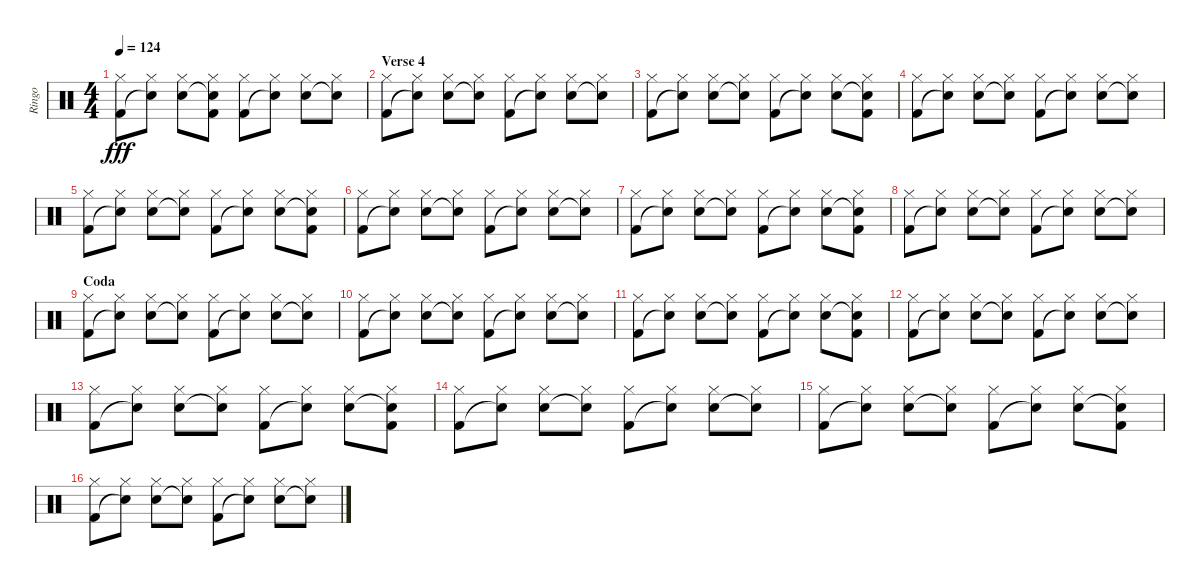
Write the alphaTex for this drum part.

\track ("Ringo" "Ringo") {instrument percussion}
\staff {score}
\articulation defaults
\ts (4 4)
\tempo 124
\clef neutral
\ks c
("Hi-Hat (closed)" "Kick (hit) 2").8{dy fff} ("Hi-Hat (closed)" "Snare (hit)"{t}).8 ("Hi-Hat (closed)" "Snare (hit) 2").8 ("Hi-Hat (closed)" "Snare (hit)"{t} "Kick (hit) 2").8 ("Hi-Hat (closed)" "Kick (hit) 2").8 ("Hi-Hat (closed)" "Snare (hit)"{t}).8 ("Hi-Hat (closed)" "Snare (hit) 2").8 ("Hi-Hat (closed)" "Snare (hit)"{t}).8 |
\section ("" "Verse 4")
("Hi-Hat (closed)" "Kick (hit) 2").8 ("Hi-Hat (closed)" "Snare (hit)"{t}).8 ("Hi-Hat (closed)" "Snare (hit) 2").8 ("Hi-Hat (closed)" "Snare (hit)"{t}).8 ("Hi-Hat (closed)" "Kick (hit) 2").8 ("Hi-Hat (closed)" "Snare (hit)"{t}).8 ("Hi-Hat (closed)" "Snare (hit) 2").8 ("Hi-Hat (closed)" "Snare (hit)"{t}).8 |
("Hi-Hat (closed)" "Kick (hit) 2").8 ("Hi-Hat (closed)" "Snare (hit)"{t}).8 ("Hi-Hat (closed)" "Snare (hit) 2").8 ("Hi-Hat (closed)" "Snare (hit)"{t}).8 ("Hi-Hat (closed)" "Kick (hit) 2").8 ("Hi-Hat (closed)" "Snare (hit)"{t}).8 ("Hi-Hat (closed)" "Snare (hit) 2").8 ("Hi-Hat (closed)" "Snare (hit)"{t} "Kick (hit) 2").8 |
("Hi-Hat (closed)" "Kick (hit) 2").8 ("Hi-Hat (closed)" "Snare (hit)"{t}).8 ("Hi-Hat (closed)" "Snare (hit) 2").8 ("Hi-Hat (closed)" "Snare (hit)"{t}).8 ("Hi-Hat (closed)" "Kick (hit) 2").8 ("Hi-Hat (closed)" "Snare (hit)"{t}).8 ("Hi-Hat (closed)" "Snare (hit) 2").8 ("Hi-Hat (closed)" "Snare (hit)"{t}).8 |
("Hi-Hat (closed)" "Kick (hit) 2").8 ("Hi-Hat (closed)" "Snare (hit)"{t}).8 ("Hi-Hat (closed)" "Snare (hit) 2").8 ("Hi-Hat (closed)" "Snare (hit)"{t}).8 ("Hi-Hat (closed)" "Kick (hit) 2").8 ("Hi-Hat (closed)" "Snare (hit)"{t}).8 ("Hi-Hat (closed)" "Snare (hit) 2").8 ("Hi-Hat (closed)" "Snare (hit)"{t} "Kick (hit) 2").8 |
("Hi-Hat (closed)" "Kick (hit) 2").8 ("Hi-Hat (closed)" "Snare (hit)"{t}).8 ("Hi-Hat (closed)" "Snare (hit) 2").8 ("Hi-Hat (closed)" "Snare (hit)"{t}).8 ("Hi-Hat (closed)" "Kick (hit) 2").8 ("Hi-Hat (closed)" "Snare (hit)"{t}).8 ("Hi-Hat (closed)" "Snare (hit) 2").8 ("Hi-Hat (closed)" "Snare (hit)"{t}).8 |
("Hi-Hat (closed)" "Kick (hit) 2").8 ("Hi-Hat (closed)" "Snare (hit)"{t}).8 ("Hi-Hat (closed)" "Snare (hit) 2").8 ("Hi-Hat (closed)" "Snare (hit)"{t}).8 ("Hi-Hat (closed)" "Kick (hit) 2").8 ("Hi-Hat (closed)" "Snare (hit)"{t}).8 ("Hi-Hat (closed)" "Snare (hit) 2").8 ("Hi-Hat (closed)" "Snare (hit)"{t} "Kick (hit) 2").8 |
("Hi-Hat (closed)" "Kick (hit) 2").8 ("Hi-Hat (closed)" "Snare (hit)"{t}).8 ("Hi-Hat (closed)" "Snare (hit) 2").8 ("Hi-Hat (closed)" "Snare (hit)"{t}).8 ("Hi-Hat (closed)" "Kick (hit) 2").8 ("Hi-Hat (closed)" "Snare (hit)"{t}).8 ("Hi-Hat (closed)" "Snare (hit) 2").8 ("Hi-Hat (closed)" "Snare (hit)"{t}).8 |
\section ("" "Coda")
("Hi-Hat (closed)" "Kick (hit) 2").8 ("Hi-Hat (closed)" "Snare (hit)"{t}).8 ("Hi-Hat (closed)" "Snare (hit) 2").8 ("Hi-Hat (closed)" "Snare (hit)"{t}).8 ("Hi-Hat (closed)" "Kick (hit) 2").8 ("Hi-Hat (closed)" "Snare (hit)"{t}).8 ("Hi-Hat (closed)" "Snare (hit) 2").8 ("Hi-Hat (closed)" "Snare (hit)"{t}).8 |
("Hi-Hat (closed)" "Kick (hit) 2").8 ("Hi-Hat (closed)" "Snare (hit)"{t}).8 ("Hi-Hat (closed)" "Snare (hit) 2").8 ("Hi-Hat (closed)" "Snare (hit)"{t}).8 ("Hi-Hat (closed)" "Kick (hit) 2").8 ("Hi-Hat (closed)" "Snare (hit)"{t}).8 ("Hi-Hat (closed)" "Snare (hit) 2").8 ("Hi-Hat (closed)" "Snare (hit)"{t}).8 |
("Hi-Hat (closed)" "Kick (hit) 2").8 ("Hi-Hat (closed)" "Snare (hit)"{t}).8 ("Hi-Hat (closed)" "Snare (hit) 2").8 ("Hi-Hat (closed)" "Snare (hit)"{t}).8 ("Hi-Hat (closed)" "Kick (hit) 2").8 ("Hi-Hat (closed)" "Snare (hit)"{t}).8 ("Hi-Hat (closed)" "Snare (hit) 2").8 ("Hi-Hat (closed)" "Snare (hit)"{t} "Kick (hit) 2").8 |
("Hi-Hat (closed)" "Kick (hit) 2").8 ("Hi-Hat (closed)" "Snare (hit)"{t}).8 ("Hi-Hat (closed)" "Snare (hit) 2").8 ("Hi-Hat (closed)" "Snare (hit)"{t}).8 ("Hi-Hat (closed)" "Kick (hit) 2").8 ("Hi-Hat (closed)" "Snare (hit)"{t}).8 ("Hi-Hat (closed)" "Snare (hit) 2").8 ("Hi-Hat (closed)" "Snare (hit)"{t}).8 |
("Hi-Hat (closed)" "Kick (hit) 2").8 ("Hi-Hat (closed)" "Snare (hit)"{t}).8 ("Hi-Hat (closed)" "Snare (hit) 2").8 ("Hi-Hat (closed)" "Snare (hit)"{t}).8 ("Hi-Hat (closed)" "Kick (hit) 2").8 ("Hi-Hat (closed)" "Snare (hit)"{t}).8 ("Hi-Hat (closed)" "Snare (hit) 2").8 ("Hi-Hat (closed)" "Snare (hit)"{t} "Kick (hit) 2").8 |
("Hi-Hat (closed)" "Kick (hit) 2").8 ("Hi-Hat (closed)" "Snare (hit)"{t}).8 ("Hi-Hat (closed)" "Snare (hit) 2").8 ("Hi-Hat (closed)" "Snare (hit)"{t}).8 ("Hi-Hat (closed)" "Kick (hit) 2").8 ("Hi-Hat (closed)" "Snare (hit)"{t}).8 ("Hi-Hat (closed)" "Snare (hit) 2").8 ("Hi-Hat (closed)" "Snare (hit)"{t}).8 |
("Hi-Hat (closed)" "Kick (hit) 2").8 ("Hi-Hat (closed)" "Snare (hit)"{t}).8 ("Hi-Hat (closed)" "Snare (hit) 2").8 ("Hi-Hat (closed)" "Snare (hit)"{t}).8 ("Hi-Hat (closed)" "Kick (hit) 2").8 ("Hi-Hat (closed)" "Snare (hit)"{t}).8 ("Hi-Hat (closed)" "Snare (hit) 2").8 ("Hi-Hat (closed)" "Snare (hit)"{t} "Kick (hit) 2").8 |
("Hi-Hat (closed)" "Kick (hit) 2").8 ("Hi-Hat (closed)" "Snare (hit)"{t}).8 ("Hi-Hat (closed)" "Snare (hit) 2").8 ("Hi-Hat (closed)" "Snare (hit)"{t}).8 ("Hi-Hat (closed)" "Kick (hit) 2").8 ("Hi-Hat (closed)" "Snare (hit)"{t}).8 ("Hi-Hat (closed)" "Snare (hit) 2").8 ("Hi-Hat (closed)" "Snare (hit)"{t}).8
